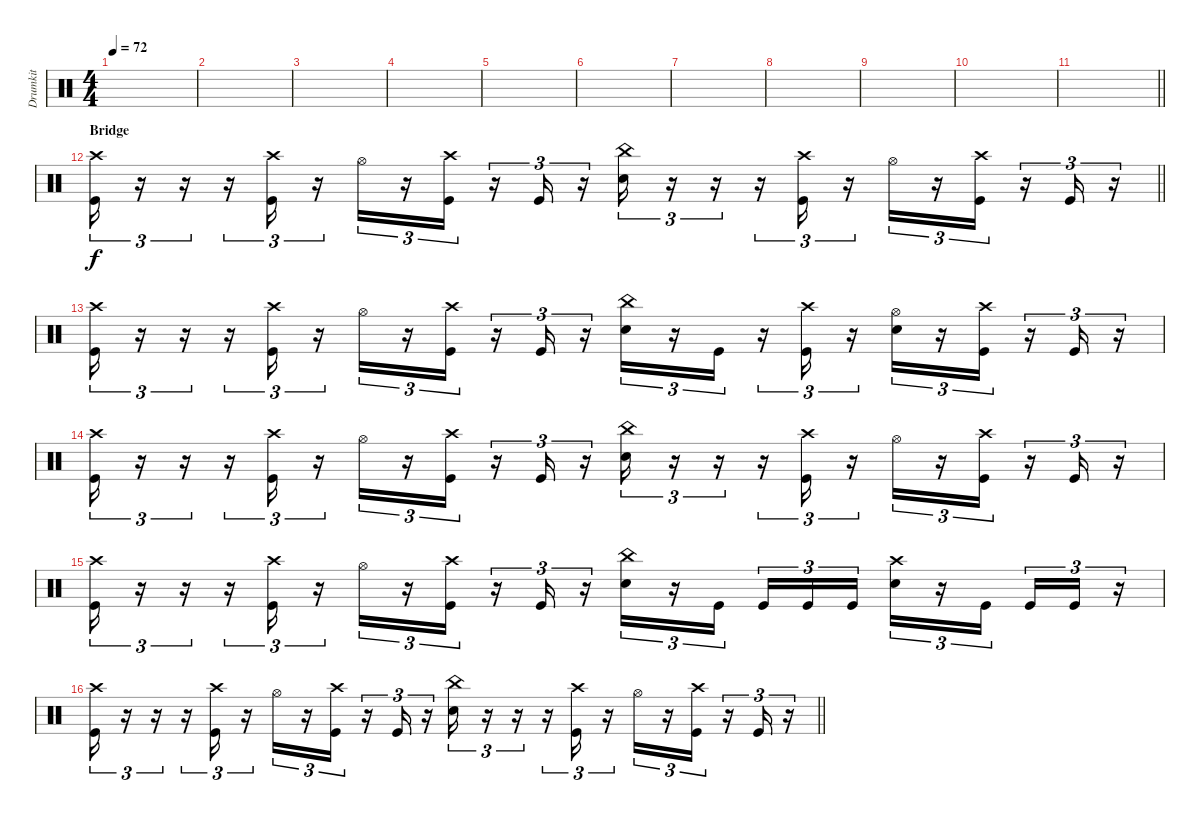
\track ("Drumkit" "Drumkit") {instrument percussion}
\staff {score}
\articulation defaults
\ts (4 4)
\tempo 72
\clef neutral
\ks c
|
|
|
|
|
|
|
|
|
|
\barLineRight lightlight
|
\section ("" "Bridge")
\barLineRight lightlight
("Kick (hit)" "Crash high (hit)").16{tu (3 2)} r.16{tu (3 2)} r.16{tu (3 2)} r.16{tu (3 2)} ("Kick (hit)" "Crash high (hit)").16{tu (3 2)} r.16{tu (3 2)} "Hi-Hat (open)".16{tu (3 2)} r.16{tu (3 2)} ("Kick (hit)" "Crash high (hit)").16{tu (3 2)} r.16{tu (3 2)} "Kick (hit)".16{tu (3 2)} r.16{tu (3 2)} ("Snare (hit) 2" "China (hit)").16{tu (3 2)} r.16{tu (3 2)} r.16{tu (3 2)} r.16{tu (3 2)} ("Kick (hit)" "Crash high (hit)").16{tu (3 2)} r.16{tu (3 2)} "Hi-Hat (open)".16{tu (3 2)} r.16{tu (3 2)} ("Kick (hit)" "Crash high (hit)").16{tu (3 2)} r.16{tu (3 2)} "Kick (hit)".16{tu (3 2)} r.16{tu (3 2)} |
("Kick (hit)" "Crash high (hit)").16{tu (3 2)} r.16{tu (3 2)} r.16{tu (3 2)} r.16{tu (3 2)} ("Kick (hit)" "Crash high (hit)").16{tu (3 2)} r.16{tu (3 2)} "Hi-Hat (open)".16{tu (3 2)} r.16{tu (3 2)} ("Kick (hit)" "Crash high (hit)").16{tu (3 2)} r.16{tu (3 2)} "Kick (hit)".16{tu (3 2)} r.16{tu (3 2)} ("Snare (hit) 2" "China (hit)").16{tu (3 2)} r.16{tu (3 2)} "Kick (hit)".16{tu (3 2)} r.16{tu (3 2)} ("Kick (hit)" "Crash high (hit)").16{tu (3 2)} r.16{tu (3 2)} ("Hi-Hat (open)" "Snare (hit) 2").16{tu (3 2)} r.16{tu (3 2)} ("Kick (hit)" "Crash high (hit)").16{tu (3 2)} r.16{tu (3 2)} "Kick (hit)".16{tu (3 2)} r.16{tu (3 2)} |
("Kick (hit)" "Crash high (hit)").16{tu (3 2)} r.16{tu (3 2)} r.16{tu (3 2)} r.16{tu (3 2)} ("Kick (hit)" "Crash high (hit)").16{tu (3 2)} r.16{tu (3 2)} "Hi-Hat (open)".16{tu (3 2)} r.16{tu (3 2)} ("Kick (hit)" "Crash high (hit)").16{tu (3 2)} r.16{tu (3 2)} "Kick (hit)".16{tu (3 2)} r.16{tu (3 2)} ("Snare (hit) 2" "China (hit)").16{tu (3 2)} r.16{tu (3 2)} r.16{tu (3 2)} r.16{tu (3 2)} ("Kick (hit)" "Crash high (hit)").16{tu (3 2)} r.16{tu (3 2)} "Hi-Hat (open)".16{tu (3 2)} r.16{tu (3 2)} ("Kick (hit)" "Crash high (hit)").16{tu (3 2)} r.16{tu (3 2)} "Kick (hit)".16{tu (3 2)} r.16{tu (3 2)} |
("Kick (hit)" "Crash high (hit)").16{tu (3 2)} r.16{tu (3 2)} r.16{tu (3 2)} r.16{tu (3 2)} ("Kick (hit)" "Crash high (hit)").16{tu (3 2)} r.16{tu (3 2)} "Hi-Hat (open)".16{tu (3 2)} r.16{tu (3 2)} ("Kick (hit)" "Crash high (hit)").16{tu (3 2)} r.16{tu (3 2)} "Kick (hit)".16{tu (3 2)} r.16{tu (3 2)} ("Snare (hit) 2" "China (hit)").16{tu (3 2)} r.16{tu (3 2)} "Kick (hit)".16{tu (3 2) beam splitsecondary} "Kick (hit)".16{tu (3 2)} "Kick (hit)".16{tu (3 2)} "Kick (hit)".16{tu (3 2)} ("Crash high (hit)" "Snare (hit) 2").16{tu (3 2)} r.16{tu (3 2)} "Kick (hit)".16{tu (3 2) beam splitsecondary} "Kick (hit)".16{tu (3 2)} "Kick (hit)".16{tu (3 2)} r.16{tu (3 2)} |
\barLineRight lightlight
("Kick (hit)" "Crash high (hit)").16{tu (3 2)} r.16{tu (3 2)} r.16{tu (3 2)} r.16{tu (3 2)} ("Kick (hit)" "Crash high (hit)").16{tu (3 2)} r.16{tu (3 2)} "Hi-Hat (open)".16{tu (3 2)} r.16{tu (3 2)} ("Kick (hit)" "Crash high (hit)").16{tu (3 2)} r.16{tu (3 2)} "Kick (hit)".16{tu (3 2)} r.16{tu (3 2)} ("Snare (hit) 2" "China (hit)").16{tu (3 2)} r.16{tu (3 2)} r.16{tu (3 2)} r.16{tu (3 2)} ("Kick (hit)" "Crash high (hit)").16{tu (3 2)} r.16{tu (3 2)} "Hi-Hat (open)".16{tu (3 2)} r.16{tu (3 2)} ("Kick (hit)" "Crash high (hit)").16{tu (3 2)} r.16{tu (3 2)} "Kick (hit)".16{tu (3 2)} r.16{tu (3 2)}
